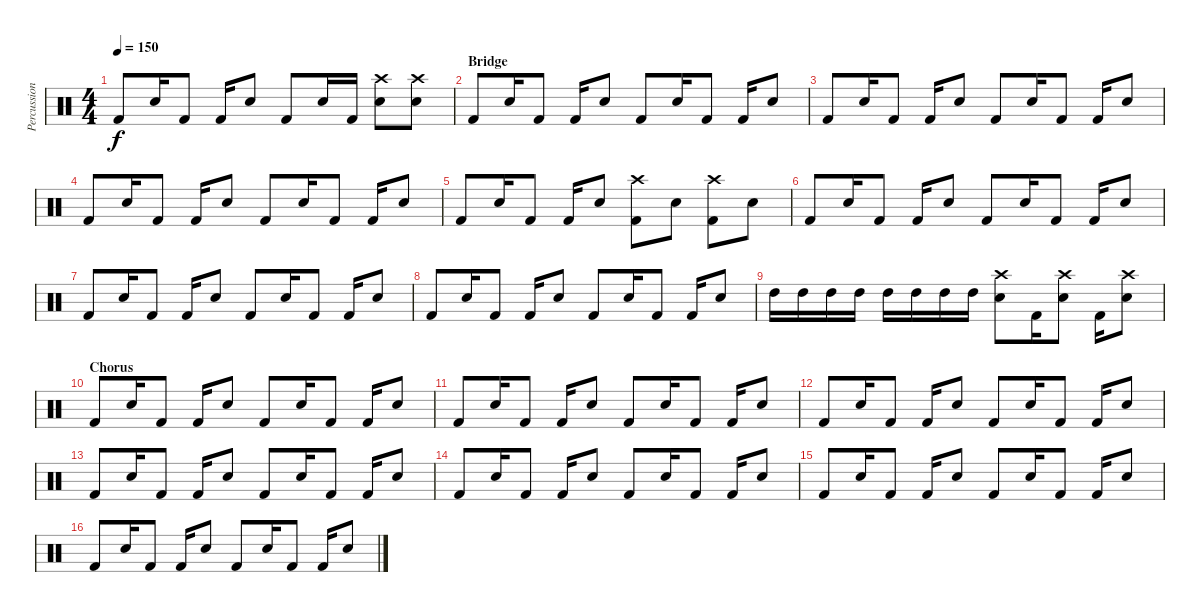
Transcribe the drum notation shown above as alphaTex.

\track ("Percussion" "Percussion") {instrument percussion}
\staff {score}
\articulation defaults
\ts (4 4)
\tempo 150
\clef neutral
\ks c "Kick (hit) 2".8{dy f} "Snare (hit) 2".16 "Kick (hit) 2".8 "Kick (hit) 2".16 "Snare (hit) 2".8 "Kick (hit) 2".8 "Snare (hit) 2".16 "Kick (hit) 2".16
("Crash high (hit)" "Snare (hit) 2").8 ("Crash high (hit)" "Snare (hit) 2").8 |
\section ("" "Bridge")
"Kick (hit) 2".8 "Snare (hit) 2".16 "Kick (hit) 2".8 "Kick (hit) 2".16 "Snare (hit) 2".8 "Kick (hit) 2".8 "Snare (hit) 2".16 "Kick (hit) 2".8 "Kick (hit) 2".16 "Snare (hit) 2".8 |
"Kick (hit) 2".8 "Snare (hit) 2".16 "Kick (hit) 2".8 "Kick (hit) 2".16 "Snare (hit) 2".8 "Kick (hit) 2".8 "Snare (hit) 2".16 "Kick (hit) 2".8 "Kick (hit) 2".16 "Snare (hit) 2".8 |
"Kick (hit) 2".8 "Snare (hit) 2".16 "Kick (hit) 2".8 "Kick (hit) 2".16 "Snare (hit) 2".8 "Kick (hit) 2".8 "Snare (hit) 2".16 "Kick (hit) 2".8 "Kick (hit) 2".16 "Snare (hit) 2".8 |
"Kick (hit) 2".8 "Snare (hit) 2".16 "Kick (hit) 2".8 "Kick (hit) 2".16 "Snare (hit) 2".8 ("Crash high (hit)" "Kick (hit) 2").8 "Snare (hit) 2".8 ("Crash high (hit)" "Kick (hit) 2").8 "Snare (hit) 2".8 |
"Kick (hit) 2".8 "Snare (hit) 2".16 "Kick (hit) 2".8 "Kick (hit) 2".16 "Snare (hit) 2".8 "Kick (hit) 2".8 "Snare (hit) 2".16 "Kick (hit) 2".8 "Kick (hit) 2".16 "Snare (hit) 2".8 |
"Kick (hit) 2".8 "Snare (hit) 2".16 "Kick (hit) 2".8 "Kick (hit) 2".16 "Snare (hit) 2".8 "Kick (hit) 2".8 "Snare (hit) 2".16 "Kick (hit) 2".8 "Kick (hit) 2".16 "Snare (hit) 2".8 |
"Kick (hit) 2".8 "Snare (hit) 2".16 "Kick (hit) 2".8 "Kick (hit) 2".16 "Snare (hit) 2".8 "Kick (hit) 2".8 "Snare (hit) 2".16 "Kick (hit) 2".8 "Kick (hit) 2".16 "Snare (hit) 2".8 |
"High Tom (hit)".16 "High Tom (hit)".16 "High Tom (hit)".16 "High Tom (hit)".16 "High Tom (hit)".16 "High Tom (hit)".16 "High Tom (hit)".16 "High Tom (hit)".16 ("Crash high (hit)" "Snare (hit) 2").8 "Kick (hit) 2".16 ("Crash high (hit)" "Snare (hit) 2").8 "Kick (hit) 2".16 ("Crash high (hit)" "Snare (hit) 2").8 |
\section ("" "Chorus")
"Kick (hit) 2".8 "Snare (hit) 2".16 "Kick (hit) 2".8 "Kick (hit) 2".16 "Snare (hit) 2".8 "Kick (hit) 2".8 "Snare (hit) 2".16 "Kick (hit) 2".8 "Kick (hit) 2".16 "Snare (hit) 2".8 |
"Kick (hit) 2".8 "Snare (hit) 2".16 "Kick (hit) 2".8 "Kick (hit) 2".16 "Snare (hit) 2".8 "Kick (hit) 2".8 "Snare (hit) 2".16 "Kick (hit) 2".8 "Kick (hit) 2".16 "Snare (hit) 2".8 |
"Kick (hit) 2".8 "Snare (hit) 2".16 "Kick (hit) 2".8 "Kick (hit) 2".16 "Snare (hit) 2".8 "Kick (hit) 2".8 "Snare (hit) 2".16 "Kick (hit) 2".8 "Kick (hit) 2".16 "Snare (hit) 2".8 |
"Kick (hit) 2".8 "Snare (hit) 2".16 "Kick (hit) 2".8 "Kick (hit) 2".16 "Snare (hit) 2".8 "Kick (hit) 2".8 "Snare (hit) 2".16 "Kick (hit) 2".8 "Kick (hit) 2".16 "Snare (hit) 2".8 |
"Kick (hit) 2".8 "Snare (hit) 2".16 "Kick (hit) 2".8 "Kick (hit) 2".16 "Snare (hit) 2".8 "Kick (hit) 2".8 "Snare (hit) 2".16 "Kick (hit) 2".8 "Kick (hit) 2".16 "Snare (hit) 2".8 |
"Kick (hit) 2".8 "Snare (hit) 2".16 "Kick (hit) 2".8 "Kick (hit) 2".16 "Snare (hit) 2".8 "Kick (hit) 2".8 "Snare (hit) 2".16 "Kick (hit) 2".8 "Kick (hit) 2".16 "Snare (hit) 2".8 |
"Kick (hit) 2".8 "Snare (hit) 2".16 "Kick (hit) 2".8 "Kick (hit) 2".16 "Snare (hit) 2".8 "Kick (hit) 2".8 "Snare (hit) 2".16 "Kick (hit) 2".8 "Kick (hit) 2".16 "Snare (hit) 2".8
